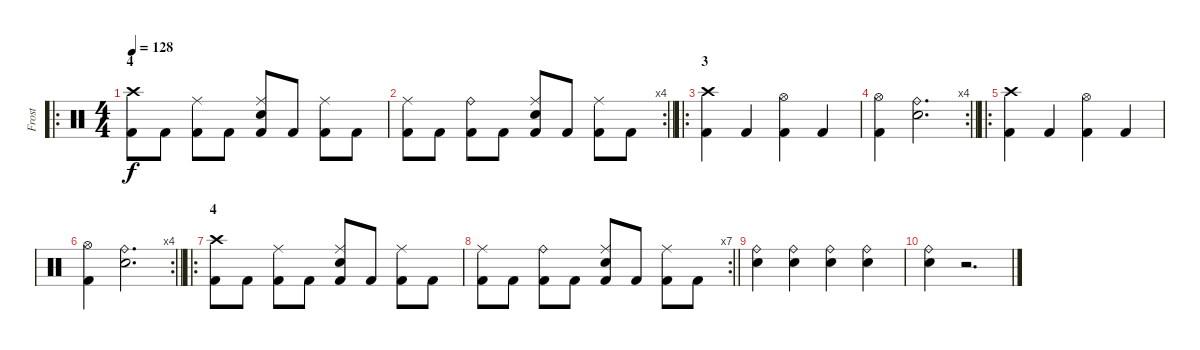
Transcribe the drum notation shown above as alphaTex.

\track ("Frost" "Frost") {instrument percussion}
\staff {score}
\articulation defaults
\ro
\ts (4 4)
\section ("" "4")
\tempo 128
\clef neutral
\ks c
("Crash high (hit)" "Kick (hit) 2").8{dy f} "Kick (hit) 2".8 ("Ride (middle)" "Kick (hit) 2").8 "Kick (hit) 2".8 ("Ride (middle)" "Electric Snare (hit)" "Kick (hit) 2").8 "Kick (hit) 2".8 ("Ride (middle)" "Kick (hit) 2").8 "Kick (hit) 2".8 |
\rc 4
\barLineRight lightlight
("Ride (middle)" "Kick (hit) 2").8 "Kick (hit) 2".8 ("Ride (bell)" "Kick (hit) 2").8 "Kick (hit) 2".8 ("Ride (middle)" "Electric Snare (hit)" "Kick (hit) 2").8 "Kick (hit) 2".8 ("Ride (middle)" "Kick (hit) 2").8 "Kick (hit) 2".8 |
\ro
\section ("" "3")
("Crash high (hit)" "Kick (hit) 2").4 "Kick (hit) 2".4 ("Hi-Hat (open)" "Kick (hit) 2").4 "Kick (hit) 2".4 |
\rc 4
\barLineRight lightlight
("Hi-Hat (open)" "Kick (hit) 2").4 ("Ride (bell)" "Electric Snare (hit)").2{d} |
\ro
("Crash high (hit)" "Kick (hit) 2").4 "Kick (hit) 2".4 ("Hi-Hat (open)" "Kick (hit) 2").4 "Kick (hit) 2".4 |
\rc 4
\barLineRight lightlight
("Hi-Hat (open)" "Kick (hit) 2").4 ("Ride (bell)" "Electric Snare (hit)").2{d} |
\ro
\section ("" "4")
("Crash high (hit)" "Kick (hit) 2").8 "Kick (hit) 2".8 ("Ride (middle)" "Kick (hit) 2").8 "Kick (hit) 2".8 ("Ride (middle)" "Electric Snare (hit)" "Kick (hit) 2").8 "Kick (hit) 2".8 ("Ride (middle)" "Kick (hit) 2").8 "Kick (hit) 2".8 |
\rc 7
\barLineRight lightlight
("Ride (middle)" "Kick (hit) 2").8 "Kick (hit) 2".8 ("Ride (bell)" "Kick (hit) 2").8 "Kick (hit) 2".8 ("Ride (middle)" "Electric Snare (hit)" "Kick (hit) 2").8 "Kick (hit) 2".8 ("Ride (middle)" "Kick (hit) 2").8 "Kick (hit) 2".8 |
("Ride (bell)" "Electric Snare (hit)").4 ("Ride (bell)" "Electric Snare (hit)").4 ("Ride (bell)" "Electric Snare (hit)").4 ("Ride (bell)" "Electric Snare (hit)").4 |
("Ride (bell)" "Electric Snare (hit)").4 r.2{d}
